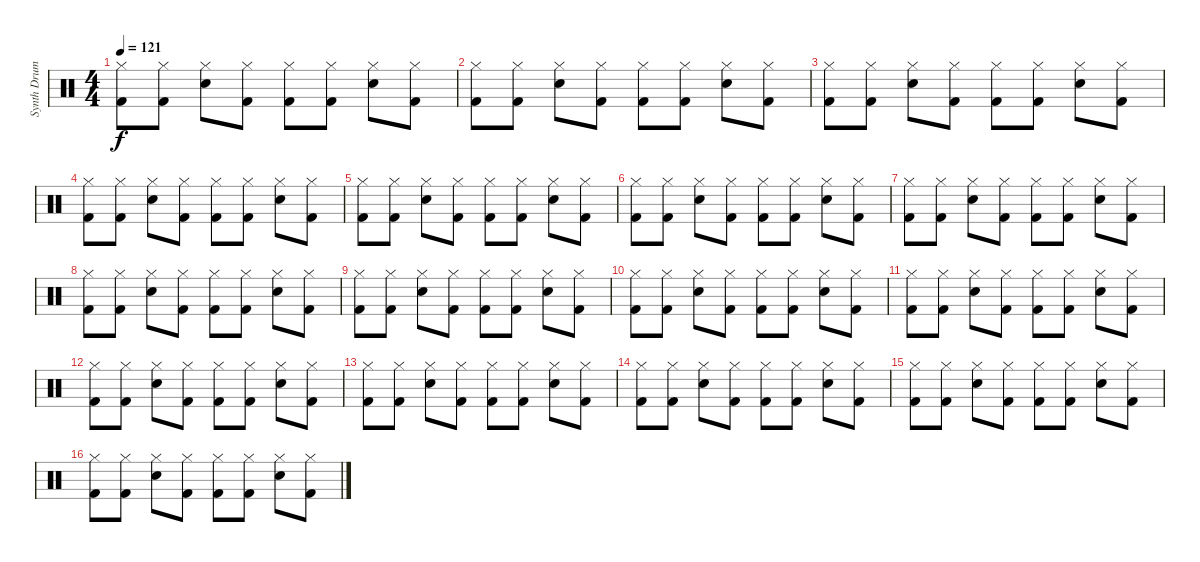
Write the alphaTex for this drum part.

\track ("Synth Drums" "Synth Drum") {instrument percussion}
\staff {score}
\articulation defaults
\ts (4 4)
\tempo 121
\clef neutral
\ks c
("Hi-Hat (closed)" "Kick (hit) 2").8{dy f} ("Hi-Hat (closed)" "Kick (hit) 2").8 ("Hi-Hat (closed)" "Electric Snare (hit)").8 ("Hi-Hat (closed)" "Kick (hit) 2").8 ("Hi-Hat (closed)" "Kick (hit) 2").8 ("Hi-Hat (closed)" "Kick (hit) 2").8 ("Hi-Hat (closed)" "Electric Snare (hit)").8 ("Hi-Hat (closed)" "Kick (hit) 2").8 |
("Hi-Hat (closed)" "Kick (hit) 2").8 ("Hi-Hat (closed)" "Kick (hit) 2").8 ("Hi-Hat (closed)" "Electric Snare (hit)").8 ("Hi-Hat (closed)" "Kick (hit) 2").8 ("Hi-Hat (closed)" "Kick (hit) 2").8 ("Hi-Hat (closed)" "Kick (hit) 2").8 ("Hi-Hat (closed)" "Electric Snare (hit)").8 ("Hi-Hat (closed)" "Kick (hit) 2").8 |
("Hi-Hat (closed)" "Kick (hit) 2").8 ("Hi-Hat (closed)" "Kick (hit) 2").8 ("Hi-Hat (closed)" "Electric Snare (hit)").8 ("Hi-Hat (closed)" "Kick (hit) 2").8 ("Hi-Hat (closed)" "Kick (hit) 2").8 ("Hi-Hat (closed)" "Kick (hit) 2").8 ("Hi-Hat (closed)" "Electric Snare (hit)").8 ("Hi-Hat (closed)" "Kick (hit) 2").8 |
("Hi-Hat (closed)" "Kick (hit) 2").8 ("Hi-Hat (closed)" "Kick (hit) 2").8 ("Hi-Hat (closed)" "Electric Snare (hit)").8 ("Hi-Hat (closed)" "Kick (hit) 2").8 ("Hi-Hat (closed)" "Kick (hit) 2").8 ("Hi-Hat (closed)" "Kick (hit) 2").8 ("Hi-Hat (closed)" "Electric Snare (hit)").8 ("Hi-Hat (closed)" "Kick (hit) 2").8 |
("Hi-Hat (closed)" "Kick (hit) 2").8 ("Hi-Hat (closed)" "Kick (hit) 2").8 ("Hi-Hat (closed)" "Electric Snare (hit)").8 ("Hi-Hat (closed)" "Kick (hit) 2").8 ("Hi-Hat (closed)" "Kick (hit) 2").8 ("Hi-Hat (closed)" "Kick (hit) 2").8 ("Hi-Hat (closed)" "Electric Snare (hit)").8 ("Hi-Hat (closed)" "Kick (hit) 2").8 |
("Hi-Hat (closed)" "Kick (hit) 2").8 ("Hi-Hat (closed)" "Kick (hit) 2").8 ("Hi-Hat (closed)" "Electric Snare (hit)").8 ("Hi-Hat (closed)" "Kick (hit) 2").8 ("Hi-Hat (closed)" "Kick (hit) 2").8 ("Hi-Hat (closed)" "Kick (hit) 2").8 ("Hi-Hat (closed)" "Electric Snare (hit)").8 ("Hi-Hat (closed)" "Kick (hit) 2").8 |
("Hi-Hat (closed)" "Kick (hit) 2").8 ("Hi-Hat (closed)" "Kick (hit) 2").8 ("Hi-Hat (closed)" "Electric Snare (hit)").8 ("Hi-Hat (closed)" "Kick (hit) 2").8 ("Hi-Hat (closed)" "Kick (hit) 2").8 ("Hi-Hat (closed)" "Kick (hit) 2").8 ("Hi-Hat (closed)" "Electric Snare (hit)").8 ("Hi-Hat (closed)" "Kick (hit) 2").8 |
("Hi-Hat (closed)" "Kick (hit) 2").8 ("Hi-Hat (closed)" "Kick (hit) 2").8 ("Hi-Hat (closed)" "Electric Snare (hit)").8 ("Hi-Hat (closed)" "Kick (hit) 2").8 ("Hi-Hat (closed)" "Kick (hit) 2").8 ("Hi-Hat (closed)" "Kick (hit) 2").8 ("Hi-Hat (closed)" "Electric Snare (hit)").8 ("Hi-Hat (closed)" "Kick (hit) 2").8 |
("Hi-Hat (closed)" "Kick (hit) 2").8 ("Hi-Hat (closed)" "Kick (hit) 2").8 ("Hi-Hat (closed)" "Electric Snare (hit)").8 ("Hi-Hat (closed)" "Kick (hit) 2").8 ("Hi-Hat (closed)" "Kick (hit) 2").8 ("Hi-Hat (closed)" "Kick (hit) 2").8 ("Hi-Hat (closed)" "Electric Snare (hit)").8 ("Hi-Hat (closed)" "Kick (hit) 2").8 |
("Hi-Hat (closed)" "Kick (hit) 2").8 ("Hi-Hat (closed)" "Kick (hit) 2").8 ("Hi-Hat (closed)" "Electric Snare (hit)").8 ("Hi-Hat (closed)" "Kick (hit) 2").8 ("Hi-Hat (closed)" "Kick (hit) 2").8 ("Hi-Hat (closed)" "Kick (hit) 2").8 ("Hi-Hat (closed)" "Electric Snare (hit)").8 ("Hi-Hat (closed)" "Kick (hit) 2").8 |
("Hi-Hat (closed)" "Kick (hit) 2").8 ("Hi-Hat (closed)" "Kick (hit) 2").8 ("Hi-Hat (closed)" "Electric Snare (hit)").8 ("Hi-Hat (closed)" "Kick (hit) 2").8 ("Hi-Hat (closed)" "Kick (hit) 2").8 ("Hi-Hat (closed)" "Kick (hit) 2").8 ("Hi-Hat (closed)" "Electric Snare (hit)").8 ("Hi-Hat (closed)" "Kick (hit) 2").8 |
("Hi-Hat (closed)" "Kick (hit) 2").8 ("Hi-Hat (closed)" "Kick (hit) 2").8 ("Hi-Hat (closed)" "Electric Snare (hit)").8 ("Hi-Hat (closed)" "Kick (hit) 2").8 ("Hi-Hat (closed)" "Kick (hit) 2").8 ("Hi-Hat (closed)" "Kick (hit) 2").8 ("Hi-Hat (closed)" "Electric Snare (hit)").8 ("Hi-Hat (closed)" "Kick (hit) 2").8 |
("Hi-Hat (closed)" "Kick (hit) 2").8 ("Hi-Hat (closed)" "Kick (hit) 2").8 ("Hi-Hat (closed)" "Electric Snare (hit)").8 ("Hi-Hat (closed)" "Kick (hit) 2").8 ("Hi-Hat (closed)" "Kick (hit) 2").8 ("Hi-Hat (closed)" "Kick (hit) 2").8 ("Hi-Hat (closed)" "Electric Snare (hit)").8 ("Hi-Hat (closed)" "Kick (hit) 2").8 |
("Hi-Hat (closed)" "Kick (hit) 2").8 ("Hi-Hat (closed)" "Kick (hit) 2").8 ("Hi-Hat (closed)" "Electric Snare (hit)").8 ("Hi-Hat (closed)" "Kick (hit) 2").8 ("Hi-Hat (closed)" "Kick (hit) 2").8 ("Hi-Hat (closed)" "Kick (hit) 2").8 ("Hi-Hat (closed)" "Electric Snare (hit)").8 ("Hi-Hat (closed)" "Kick (hit) 2").8 |
("Hi-Hat (closed)" "Kick (hit) 2").8 ("Hi-Hat (closed)" "Kick (hit) 2").8 ("Hi-Hat (closed)" "Electric Snare (hit)").8 ("Hi-Hat (closed)" "Kick (hit) 2").8 ("Hi-Hat (closed)" "Kick (hit) 2").8 ("Hi-Hat (closed)" "Kick (hit) 2").8 ("Hi-Hat (closed)" "Electric Snare (hit)").8 ("Hi-Hat (closed)" "Kick (hit) 2").8 |
("Hi-Hat (closed)" "Kick (hit) 2").8 ("Hi-Hat (closed)" "Kick (hit) 2").8 ("Hi-Hat (closed)" "Electric Snare (hit)").8 ("Hi-Hat (closed)" "Kick (hit) 2").8 ("Hi-Hat (closed)" "Kick (hit) 2").8 ("Hi-Hat (closed)" "Kick (hit) 2").8 ("Hi-Hat (closed)" "Electric Snare (hit)").8 ("Hi-Hat (closed)" "Kick (hit) 2").8
